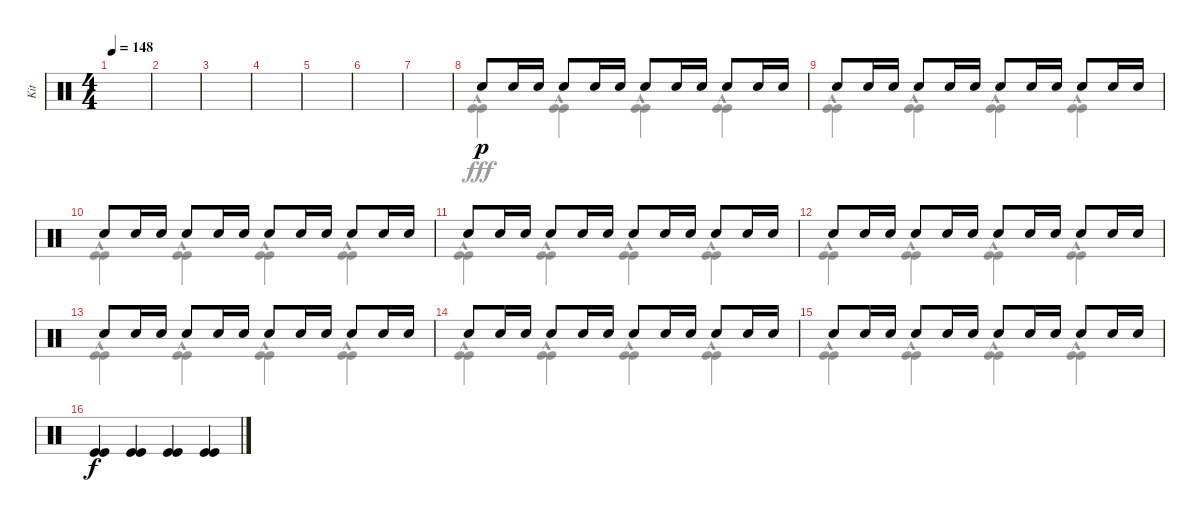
\track ("Kit" "Kit") {instrument percussion}
\staff {score}
\articulation defaults
\voice
\ts (4 4)
\tempo 148
\clef neutral
\ks c
|
|
|
|
|
|
|
"Snare (hit) 2".8{dy p volume 6} "Snare (hit) 2".16 "Snare (hit) 2".16 "Snare (hit) 2".8 "Snare (hit) 2".16 "Snare (hit) 2".16 "Snare (hit) 2".8 "Snare (hit) 2".16 "Snare (hit) 2".16 "Snare (hit) 2".8 "Snare (hit) 2".16 "Snare (hit) 2".16 |
"Snare (hit) 2".8 "Snare (hit) 2".16 "Snare (hit) 2".16 "Snare (hit) 2".8 "Snare (hit) 2".16 "Snare (hit) 2".16 "Snare (hit) 2".8 "Snare (hit) 2".16 "Snare (hit) 2".16 "Snare (hit) 2".8 "Snare (hit) 2".16 "Snare (hit) 2".16 |
"Snare (hit) 2".8 "Snare (hit) 2".16 "Snare (hit) 2".16 "Snare (hit) 2".8 "Snare (hit) 2".16 "Snare (hit) 2".16 "Snare (hit) 2".8 "Snare (hit) 2".16 "Snare (hit) 2".16 "Snare (hit) 2".8 "Snare (hit) 2".16 "Snare (hit) 2".16 |
"Snare (hit) 2".8{volume 6} "Snare (hit) 2".16 "Snare (hit) 2".16 "Snare (hit) 2".8 "Snare (hit) 2".16 "Snare (hit) 2".16 "Snare (hit) 2".8 "Snare (hit) 2".16 "Snare (hit) 2".16 "Snare (hit) 2".8 "Snare (hit) 2".16 "Snare (hit) 2".16 |
"Snare (hit) 2".8{volume 6} "Snare (hit) 2".16 "Snare (hit) 2".16 "Snare (hit) 2".8 "Snare (hit) 2".16 "Snare (hit) 2".16 "Snare (hit) 2".8 "Snare (hit) 2".16 "Snare (hit) 2".16 "Snare (hit) 2".8 "Snare (hit) 2".16 "Snare (hit) 2".16 |
"Snare (hit) 2".8 "Snare (hit) 2".16 "Snare (hit) 2".16 "Snare (hit) 2".8 "Snare (hit) 2".16 "Snare (hit) 2".16 "Snare (hit) 2".8 "Snare (hit) 2".16 "Snare (hit) 2".16 "Snare (hit) 2".8 "Snare (hit) 2".16 "Snare (hit) 2".16 |
"Snare (hit) 2".8 "Snare (hit) 2".16 "Snare (hit) 2".16 "Snare (hit) 2".8 "Snare (hit) 2".16 "Snare (hit) 2".16 "Snare (hit) 2".8 "Snare (hit) 2".16 "Snare (hit) 2".16 "Snare (hit) 2".8 "Snare (hit) 2".16 "Snare (hit) 2".16 |
"Snare (hit) 2".8{volume 6} "Snare (hit) 2".16 "Snare (hit) 2".16 "Snare (hit) 2".8 "Snare (hit) 2".16 "Snare (hit) 2".16 "Snare (hit) 2".8 "Snare (hit) 2".16 "Snare (hit) 2".16 "Snare (hit) 2".8 "Snare (hit) 2".16 "Snare (hit) 2".16 |
("Kick (hit)" "Kick (hit)").4{dy f volume 9} ("Kick (hit)" "Kick (hit)").4 ("Kick (hit)" "Kick (hit)").4 ("Kick (hit)" "Kick (hit)").4
\voice
\clef neutral
\ottava regular
\simile none
\ks c
|
|
|
|
|
|
|
("Kick (hit)" "Kick (hit)"{hac}).4{dy fff} ("Kick (hit)" "Kick (hit)"{hac}).4 ("Kick (hit)" "Kick (hit)"{hac}).4 ("Kick (hit)" "Kick (hit)"{hac}).4 |
("Kick (hit)" "Kick (hit)"{hac}).4 ("Kick (hit)" "Kick (hit)"{hac}).4 ("Kick (hit)" "Kick (hit)"{hac}).4 ("Kick (hit)" "Kick (hit)"{hac}).4 |
("Kick (hit)" "Kick (hit)"{hac}).4 ("Kick (hit)" "Kick (hit)"{hac}).4 ("Kick (hit)" "Kick (hit)"{hac}).4 ("Kick (hit)" "Kick (hit)"{hac}).4 |
("Kick (hit)" "Kick (hit)"{hac}).4 ("Kick (hit)" "Kick (hit)"{hac}).4 ("Kick (hit)" "Kick (hit)"{hac}).4 ("Kick (hit)" "Kick (hit)"{hac}).4 |
("Kick (hit)" "Kick (hit)"{hac}).4 ("Kick (hit)" "Kick (hit)"{hac}).4 ("Kick (hit)" "Kick (hit)"{hac}).4 ("Kick (hit)" "Kick (hit)"{hac}).4 |
("Kick (hit)" "Kick (hit)"{hac}).4 ("Kick (hit)" "Kick (hit)"{hac}).4 ("Kick (hit)" "Kick (hit)"{hac}).4 ("Kick (hit)" "Kick (hit)"{hac}).4 |
("Kick (hit)" "Kick (hit)"{hac}).4 ("Kick (hit)" "Kick (hit)"{hac}).4 ("Kick (hit)" "Kick (hit)"{hac}).4 ("Kick (hit)" "Kick (hit)"{hac}).4 |
("Kick (hit)" "Kick (hit)"{hac}).4 ("Kick (hit)" "Kick (hit)"{hac}).4 ("Kick (hit)" "Kick (hit)"{hac}).4 ("Kick (hit)" "Kick (hit)"{hac}).4 |
